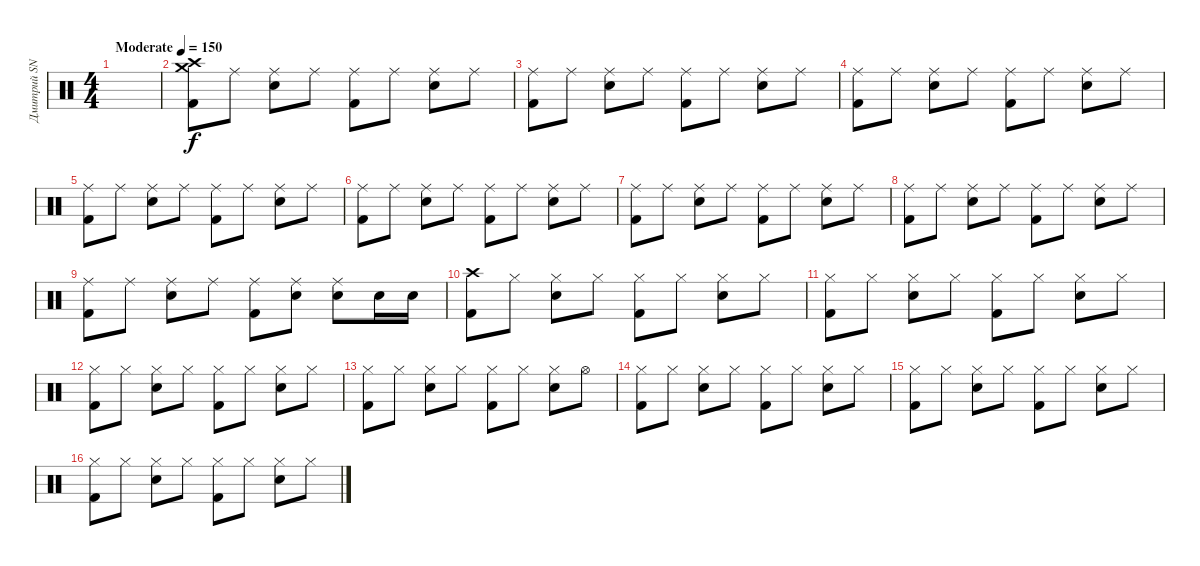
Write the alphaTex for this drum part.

\track ("Дмитрий SNAKE Хакимов" "Дмитрий SN") {instrument percussion}
\staff {score}
\articulation defaults
\ts (4 4)
\tempo (150 "Moderate")
\clef neutral
\ks c
|
("Crash high (hit)" "Crash medium (hit)" "Kick (hit) 2").8 "Ride (middle)".8 ("Ride (middle)" "Snare (hit) 2").8 "Ride (middle)".8 ("Ride (middle)" "Kick (hit) 2").8 "Ride (middle)".8 ("Ride (middle)" "Snare (hit) 2").8 "Ride (middle)".8 |
("Ride (middle)" "Kick (hit) 2").8 "Ride (middle)".8 ("Ride (middle)" "Snare (hit) 2").8 "Ride (middle)".8 ("Ride (middle)" "Kick (hit) 2").8 "Ride (middle)".8 ("Ride (middle)" "Snare (hit) 2").8 "Ride (middle)".8 |
("Ride (middle)" "Kick (hit) 2").8 "Ride (middle)".8 ("Ride (middle)" "Snare (hit) 2").8 "Ride (middle)".8 ("Ride (middle)" "Kick (hit) 2").8 "Ride (middle)".8 ("Ride (middle)" "Snare (hit) 2").8 "Ride (middle)".8 |
("Ride (middle)" "Kick (hit) 2").8 "Ride (middle)".8 ("Ride (middle)" "Snare (hit) 2").8 "Ride (middle)".8 ("Ride (middle)" "Kick (hit) 2").8 "Ride (middle)".8 ("Ride (middle)" "Snare (hit) 2").8 "Ride (middle)".8 |
("Ride (middle)" "Kick (hit) 2").8 "Ride (middle)".8 ("Ride (middle)" "Snare (hit) 2").8 "Ride (middle)".8 ("Ride (middle)" "Kick (hit) 2").8 "Ride (middle)".8 ("Ride (middle)" "Snare (hit) 2").8 "Ride (middle)".8 |
("Ride (middle)" "Kick (hit) 2").8 "Ride (middle)".8 ("Ride (middle)" "Snare (hit) 2").8 "Ride (middle)".8 ("Ride (middle)" "Kick (hit) 2").8 "Ride (middle)".8 ("Ride (middle)" "Snare (hit) 2").8 "Ride (middle)".8 |
("Ride (middle)" "Kick (hit) 2").8 "Ride (middle)".8 ("Ride (middle)" "Snare (hit) 2").8 "Ride (middle)".8 ("Ride (middle)" "Kick (hit) 2").8 "Ride (middle)".8 ("Ride (middle)" "Snare (hit) 2").8 "Ride (middle)".8 |
("Ride (middle)" "Kick (hit) 2").8 "Ride (middle)".8 ("Ride (middle)" "Snare (hit) 2").8 "Ride (middle)".8 ("Ride (middle)" "Kick (hit) 2").8 ("Ride (middle)" "Snare (hit) 2").8 ("Ride (middle)" "Snare (hit) 2").8 "Snare (hit) 2".16 "Snare (hit) 2".16 |
("Crash high (hit)" "Kick (hit) 2").8 "Hi-Hat (closed)".8 ("Hi-Hat (closed)" "Snare (hit) 2").8 "Hi-Hat (closed)".8 ("Hi-Hat (closed)" "Kick (hit) 2").8 "Hi-Hat (closed)".8 ("Hi-Hat (closed)" "Snare (hit) 2").8 "Hi-Hat (closed)".8 |
("Hi-Hat (closed)" "Kick (hit) 2").8 "Hi-Hat (closed)".8 ("Hi-Hat (closed)" "Snare (hit) 2").8 "Hi-Hat (closed)".8 ("Hi-Hat (closed)" "Kick (hit) 2").8 "Hi-Hat (closed)".8 ("Hi-Hat (closed)" "Snare (hit) 2").8 "Hi-Hat (closed)".8 |
("Hi-Hat (closed)" "Kick (hit) 2").8 "Hi-Hat (closed)".8 ("Hi-Hat (closed)" "Snare (hit) 2").8 "Hi-Hat (closed)".8 ("Hi-Hat (closed)" "Kick (hit) 2").8 "Hi-Hat (closed)".8 ("Hi-Hat (closed)" "Snare (hit) 2").8 "Hi-Hat (closed)".8 |
("Hi-Hat (closed)" "Kick (hit) 2").8 "Hi-Hat (closed)".8 ("Hi-Hat (closed)" "Snare (hit) 2").8 "Hi-Hat (closed)".8 ("Hi-Hat (closed)" "Kick (hit) 2").8 "Hi-Hat (closed)".8 ("Hi-Hat (closed)" "Snare (hit) 2").8 "Hi-Hat (open)".8 |
("Hi-Hat (closed)" "Kick (hit) 2").8 "Hi-Hat (closed)".8 ("Hi-Hat (closed)" "Snare (hit) 2").8 "Hi-Hat (closed)".8 ("Hi-Hat (closed)" "Kick (hit) 2").8 "Hi-Hat (closed)".8 ("Hi-Hat (closed)" "Snare (hit) 2").8 "Hi-Hat (closed)".8 |
("Hi-Hat (closed)" "Kick (hit) 2").8 "Hi-Hat (closed)".8 ("Hi-Hat (closed)" "Snare (hit) 2").8 "Hi-Hat (closed)".8 ("Hi-Hat (closed)" "Kick (hit) 2").8 "Hi-Hat (closed)".8 ("Hi-Hat (closed)" "Snare (hit) 2").8 "Hi-Hat (closed)".8 |
("Hi-Hat (closed)" "Kick (hit) 2").8 "Hi-Hat (closed)".8 ("Hi-Hat (closed)" "Snare (hit) 2").8 "Hi-Hat (closed)".8 ("Hi-Hat (closed)" "Kick (hit) 2").8 "Hi-Hat (closed)".8 ("Hi-Hat (closed)" "Snare (hit) 2").8 "Hi-Hat (closed)".8
